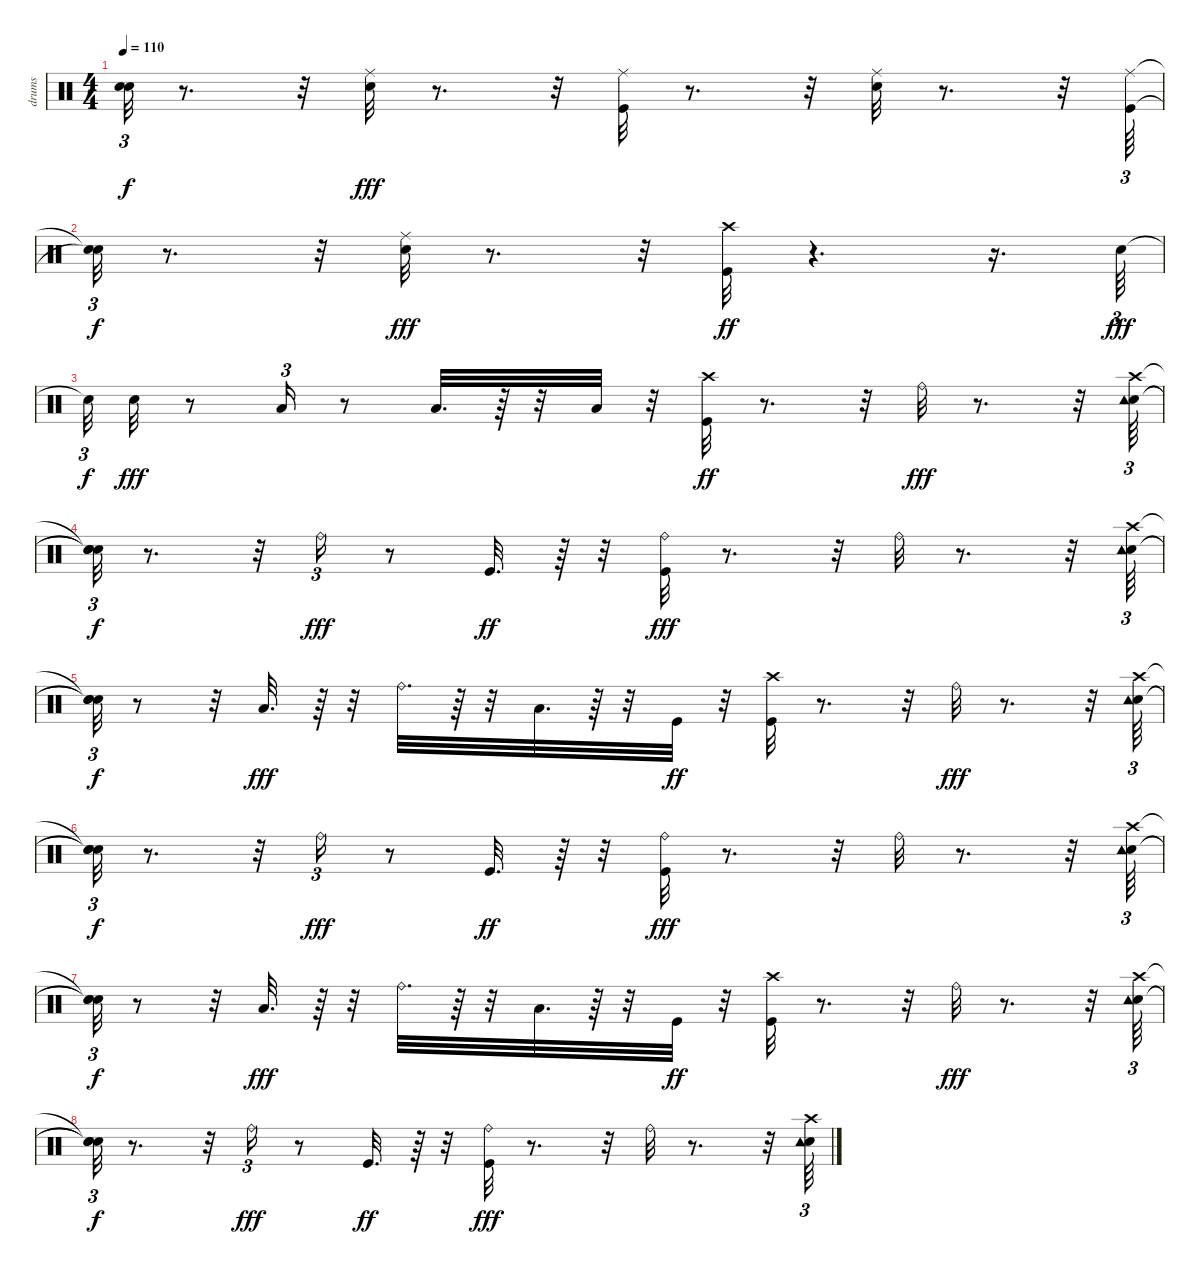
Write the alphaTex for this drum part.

\track ("drums    " "drums    ") {instrument percussion}
\staff {score}
\articulation defaults
\ts (4 4)
\tempo 110
\clef neutral
\ks c
("Snare (hit)"{t} "Snare (hit)"{t}).32{tu (3 2) dy f} r.8{d} r.32 ("Snare (hit) 2" "Ride (middle)").32{dy fff} r.8{d} r.32 ("Kick (hit)" "Ride (middle)").32 r.8{d} r.32 ("Snare (hit) 2" "Ride (middle)").32 r.8{d} r.32 ("Kick (hit)" "Ride (middle)").64{tu (3 2)} |
("Snare (hit)"{t} "Snare (hit)"{t}).32{tu (3 2) dy f} r.8{d} r.32 ("Snare (hit) 2" "Ride (middle)").32{dy fff} r.8{d} r.32 ("Crash high (hit)" "Kick (hit)").32{dy ff} r.4{d} r.16{d} "Snare (hit) 2".64{tu (3 2) dy fff} |
"Snare (hit)"{t}.32{tu (3 2) dy f} "Snare (hit) 2".32{dy fff} r.8 "Low Tom (hit)".16{tu (3 2)} r.8 "Low Tom (hit)".32{d} r.64 r.32 "Low Floor Tom (hit)".32 r.32 ("Crash high (hit)" "Kick (hit)").32{dy ff} r.8{d} r.32 "Ride (bell)".32{dy fff} r.8{d} r.32 ("Snare (hit) 2" "Crash high (hit)" "Tambourine (hit)").64{tu (3 2)} |
("Snare (hit)"{t} "Snare (hit)"{t} "Snare (hit)"{t}).32{tu (3 2) dy f} r.8{d} r.32 "Ride (bell)".16{tu (3 2) dy fff} r.8 "Kick (hit)".32{d dy ff} r.64 r.32 ("Kick (hit)" "Ride (bell)").32{dy fff} r.8{d} r.32 "Ride (bell)".32 r.8{d} r.32 ("Snare (hit) 2" "Crash high (hit)" "Tambourine (hit)").64{tu (3 2)} |
("Snare (hit)"{t} "Snare (hit)"{t} "Snare (hit)"{t}).32{tu (3 2) dy f} r.8 r.32 "Low Tom (hit)".32{d dy fff} r.64 r.32 "Ride (bell)".32{d} r.64 r.32 "Low Floor Tom (hit)".32{d} r.64 r.32 "Kick (hit)".32{dy ff} r.32 ("Crash high (hit)" "Kick (hit)").32 r.8{d} r.32 "Ride (bell)".32{dy fff} r.8{d} r.32 ("Snare (hit) 2" "Crash high (hit)" "Tambourine (hit)").64{tu (3 2)} |
("Snare (hit)"{t} "Snare (hit)"{t} "Snare (hit)"{t}).32{tu (3 2) dy f} r.8{d} r.32 "Ride (bell)".16{tu (3 2) dy fff} r.8 "Kick (hit)".32{d dy ff} r.64 r.32 ("Kick (hit)" "Ride (bell)").32{dy fff} r.8{d} r.32 "Ride (bell)".32 r.8{d} r.32 ("Snare (hit) 2" "Crash high (hit)" "Tambourine (hit)").64{tu (3 2)} |
("Snare (hit)"{t} "Snare (hit)"{t} "Snare (hit)"{t}).32{tu (3 2) dy f} r.8 r.32 "Low Tom (hit)".32{d dy fff} r.64 r.32 "Ride (bell)".32{d} r.64 r.32 "Low Floor Tom (hit)".32{d} r.64 r.32 "Kick (hit)".32{dy ff} r.32 ("Kick (hit)" "Crash high (hit)").32 r.8{d} r.32 "Ride (bell)".32{dy fff} r.8{d} r.32 ("Snare (hit) 2" "Crash high (hit)" "Tambourine (hit)").64{tu (3 2)} |
("Snare (hit)"{t} "Snare (hit)"{t} "Snare (hit)"{t}).32{tu (3 2) dy f} r.8{d} r.32 "Ride (bell)".16{tu (3 2) dy fff} r.8 "Kick (hit)".32{d dy ff} r.64 r.32 ("Kick (hit)" "Ride (bell)").32{dy fff} r.8{d} r.32 "Ride (bell)".32 r.8{d} r.32 ("Snare (hit) 2" "Crash high (hit)" "Tambourine (hit)").64{tu (3 2)}
